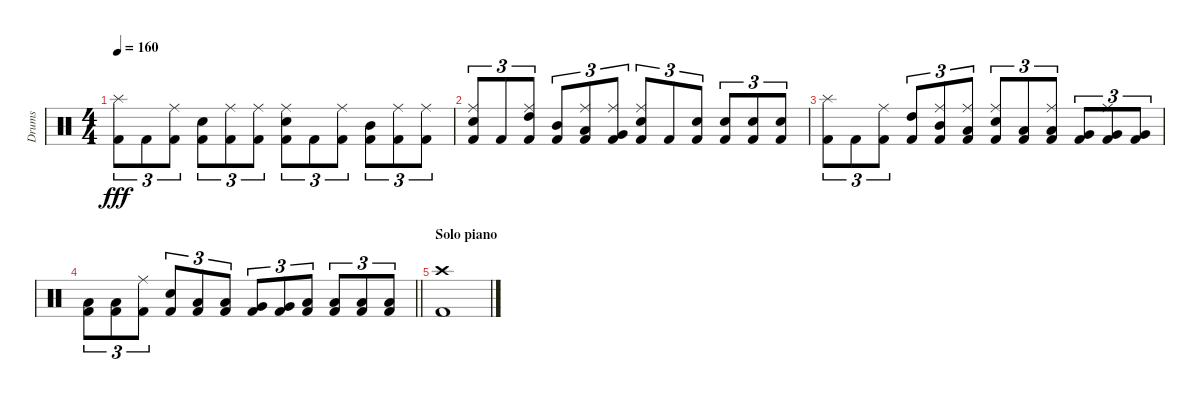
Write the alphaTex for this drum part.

\track ("Drums" "Drums") {instrument percussion}
\staff {score}
\articulation defaults
\ts (4 4)
\tempo 160
\clef neutral
\ks c
("Splash (hit)" "Kick (hit) 2").8{tu (3 2) dy fff} "Kick (hit) 2".8{tu (3 2)} ("Ride (middle)" "Kick (hit) 2").8{tu (3 2)} ("Electric Snare (hit)" "Kick (hit) 2").8{tu (3 2)} ("Ride (middle)" "Kick (hit) 2").8{tu (3 2)} ("Ride (middle)" "Kick (hit) 2").8{tu (3 2)} ("Electric Snare (hit)" "Ride (middle)" "Kick (hit) 2").8{tu (3 2)} "Kick (hit) 2".8{tu (3 2)} ("Ride (middle)" "Kick (hit) 2").8{tu (3 2)} ("Mid Tom (hit)" "Kick (hit) 2").8{tu (3 2)} ("Ride (middle)" "Kick (hit) 2").8{tu (3 2)} ("Ride (middle)" "Kick (hit) 2").8{tu (3 2)} |
("Electric Snare (hit)" "Ride (middle)" "Kick (hit) 2").8{tu (3 2)} "Kick (hit) 2".8{tu (3 2)} ("High Tom (hit)" "Ride (middle)" "Kick (hit) 2").8{tu (3 2)} ("Mid Tom (hit)" "Kick (hit) 2").8{tu (3 2)} ("Low Tom (hit)" "Ride (middle)" "Kick (hit) 2").8{tu (3 2)} ("Very Low Tom (hit)" "Ride (middle)" "Kick (hit) 2").8{tu (3 2)} ("Electric Snare (hit)" "Ride (middle)" "Kick (hit) 2").8{tu (3 2)} "Kick (hit) 2".8{tu (3 2)} ("Electric Snare (hit)" "Kick (hit) 2").8{tu (3 2)} ("Electric Snare (hit)" "Kick (hit) 2").8{tu (3 2)} ("Electric Snare (hit)" "Kick (hit) 2").8{tu (3 2)} ("Electric Snare (hit)" "Kick (hit) 2").8{tu (3 2)} |
("Splash (hit)" "Kick (hit) 2").8{tu (3 2)} "Kick (hit) 2".8{tu (3 2)} ("Ride (middle)" "Kick (hit) 2").8{tu (3 2)} ("High Tom (hit)" "Kick (hit) 2").8{tu (3 2)} ("Mid Tom (hit)" "Ride (middle)" "Kick (hit) 2").8{tu (3 2)} ("Low Tom (hit)" "Ride (middle)" "Kick (hit) 2").8{tu (3 2)} ("Electric Snare (hit)" "Ride (middle)" "Kick (hit) 2").8{tu (3 2)} ("Low Tom (hit)" "Kick (hit) 2").8{tu (3 2)} ("Low Tom (hit)" "Ride (middle)" "Kick (hit) 2").8{tu (3 2)} ("Very Low Tom (hit)" "Kick (hit) 2").8{tu (3 2)} ("Very Low Tom (hit)" "Ride (middle)" "Kick (hit) 2").8{tu (3 2)} ("Very Low Tom (hit)" "Kick (hit) 2").8{tu (3 2)} |
\barLineRight lightlight
("Low Tom (hit)" "Kick (hit) 2").8{tu (3 2)} ("Low Tom (hit)" "Kick (hit) 2").8{tu (3 2)} ("Ride (middle)" "Kick (hit) 2").8{tu (3 2)} ("Electric Snare (hit)" "Kick (hit) 2").8{tu (3 2)} ("Low Tom (hit)" "Kick (hit) 2").8{tu (3 2)} ("Low Tom (hit)" "Kick (hit) 2").8{tu (3 2)} ("Very Low Tom (hit)" "Kick (hit) 2").8{tu (3 2)} ("Very Low Tom (hit)" "Kick (hit) 2").8{tu (3 2)} ("Low Floor Tom (hit)" "Kick (hit) 2").8{tu (3 2)} ("Low Floor Tom (hit)" "Kick (hit) 2").8{tu (3 2)} ("Low Floor Tom (hit)" "Kick (hit) 2").8{tu (3 2)} ("Low Floor Tom (hit)" "Kick (hit) 2").8{tu (3 2)} |
\section ("" "Solo piano")
("Crash high (hit)" "Kick (hit) 2").1
